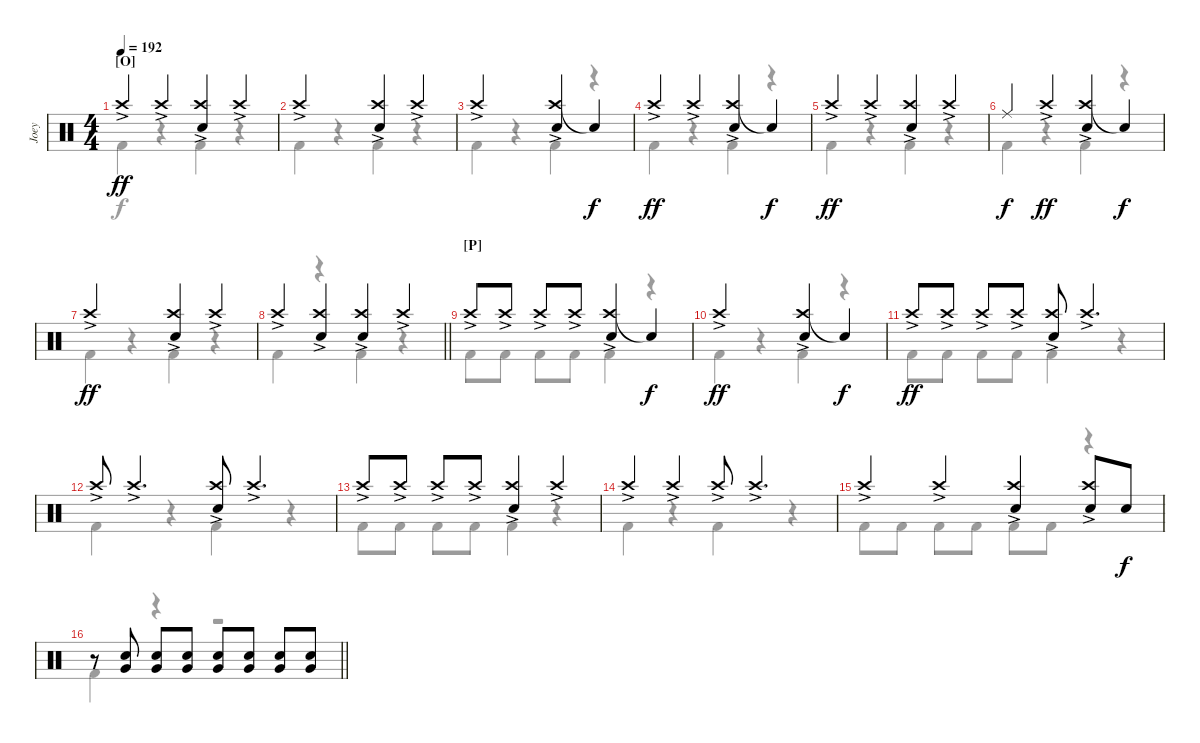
\track ("Joey" "Joey") {instrument percussion}
\staff {score}
\articulation defaults
\voice
\ts (4 4)
\section ("" "[O]")
\tempo 192
\clef neutral
\ks c "Crash high (hit)"{ac}.4{dy ff} "Crash high (hit)"{ac}.4
("Crash high (hit)"{ac} "Snare (hit) 2").4 "Crash high (hit)"{ac}.4 |
"Crash high (hit)"{ac}.2 ("Crash high (hit)"{ac} "Snare (hit) 2").4 "Crash high (hit)"{ac}.4 |
"Crash high (hit)"{ac}.2 ("Crash high (hit)"{ac} "Snare (hit) 2").4 "Snare (hit)"{t}.4{dy f} |
"Crash high (hit)"{ac}.4{dy ff} "Crash high (hit)"{ac}.4 ("Crash high (hit)"{ac} "Snare (hit) 2").4 "Snare (hit)"{t}.4{dy f} |
"Crash high (hit)"{ac}.4{dy ff} "Crash high (hit)"{ac}.4 ("Crash high (hit)"{ac} "Snare (hit) 2").4 "Crash high (hit)"{ac}.4 |
"Ride (middle)".4{dy f} "Crash high (hit)"{ac}.4{dy ff} ("Crash high (hit)"{ac} "Snare (hit) 2").4 "Snare (hit)"{t}.4{dy f} |
"Crash high (hit)"{ac}.2{dy ff} ("Crash high (hit)"{ac} "Snare (hit) 2").4 "Crash high (hit)"{ac}.4 |
\barLineRight lightlight "Crash high (hit)"{ac}.4
("Crash high (hit)"{ac} "Snare (hit) 2").4 ("Crash high (hit)"{ac} "Snare (hit) 2").4 "Crash high (hit)"{ac}.4 |
\section ("" "[P]")
"Crash high (hit)"{ac}.8 "Crash high (hit)"{ac}.8 "Crash high (hit)"{ac}.8 "Crash high (hit)"{ac}.8 ("Crash high (hit)"{ac} "Snare (hit) 2").4 "Snare (hit)"{t}.4{dy f} |
"Crash high (hit)"{ac}.2{dy ff} ("Crash high (hit)"{ac} "Snare (hit) 2").4 "Snare (hit)"{t}.4{dy f} |
"Crash high (hit)"{ac}.8{dy ff} "Crash high (hit)"{ac}.8 "Crash high (hit)"{ac}.8 "Crash high (hit)"{ac}.8 ("Crash high (hit)"{ac} "Snare (hit) 2").8 "Crash high (hit)"{ac}.4{d} |
"Crash high (hit)"{ac}.8 "Crash high (hit)"{ac}.4{d} ("Crash high (hit)"{ac} "Snare (hit) 2").8 "Crash high (hit)"{ac}.4{d} |
"Crash high (hit)"{ac}.8 "Crash high (hit)"{ac}.8 "Crash high (hit)"{ac}.8 "Crash high (hit)"{ac}.8 ("Crash high (hit)"{ac} "Snare (hit) 2").4 "Crash high (hit)"{ac}.4 |
"Crash high (hit)"{ac}.4 "Crash high (hit)"{ac}.4 "Crash high (hit)"{ac}.8 "Crash high (hit)"{ac}.4{d} |
"Crash high (hit)"{ac}.4 "Crash high (hit)"{ac}.4 ("Crash high (hit)"{ac} "Snare (hit) 2").4 ("Crash high (hit)"{ac} "Snare (hit) 2").8 "Snare (hit) 2".8{dy f} |
\barLineRight lightlight
r.8 ("Snare (hit) 2" "Very Low Tom (hit)").8 ("Snare (hit) 2" "Very Low Tom (hit)").8 ("Snare (hit) 2" "Very Low Tom (hit)").8 ("Snare (hit) 2" "Very Low Tom (hit)").8 ("Snare (hit) 2" "Very Low Tom (hit)").8 ("Snare (hit) 2" "Very Low Tom (hit)").8 ("Snare (hit) 2" "Very Low Tom (hit)").8
\voice
\clef neutral
\ottava regular
\simile none
\ks c "Kick (hit) 2".4{dy f}
r.4 "Kick (hit) 2".4 r.4 |
"Kick (hit) 2".4 r.4 "Kick (hit) 2".4 r.4 |
"Kick (hit) 2".4 r.4 "Kick (hit) 2".4 r.4 |
"Kick (hit) 2".4 r.4 "Kick (hit) 2".4 r.4 |
"Kick (hit) 2".4 r.4 "Kick (hit) 2".4 r.4 |
"Kick (hit) 2".4 r.4 "Kick (hit) 2".4 r.4 |
"Kick (hit) 2".4 r.4 "Kick (hit) 2".4 r.4 |
\barLineRight lightlight "Kick (hit) 2".4
r.4 "Kick (hit) 2".4 r.4 |
"Kick (hit) 2".8 "Kick (hit) 2".8 "Kick (hit) 2".8 "Kick (hit) 2".8 "Kick (hit) 2".4 r.4 |
"Kick (hit) 2".4 r.4 "Kick (hit) 2".4 r.4 |
"Kick (hit) 2".8 "Kick (hit) 2".8 "Kick (hit) 2".8 "Kick (hit) 2".8 "Kick (hit) 2".4 r.4 |
"Kick (hit) 2".4 r.4 "Kick (hit) 2".4 r.4 |
"Kick (hit) 2".8 "Kick (hit) 2".8 "Kick (hit) 2".8 "Kick (hit) 2".8 "Kick (hit) 2".4 r.4 |
"Kick (hit) 2".4 r.4 "Kick (hit) 2".4 r.4 |
"Kick (hit) 2".8 "Kick (hit) 2".8 "Kick (hit) 2".8 "Kick (hit) 2".8 "Kick (hit) 2".8 "Kick (hit) 2".8 r.4 |
\barLineRight lightlight "Kick (hit) 2".4
r.4 r.2
